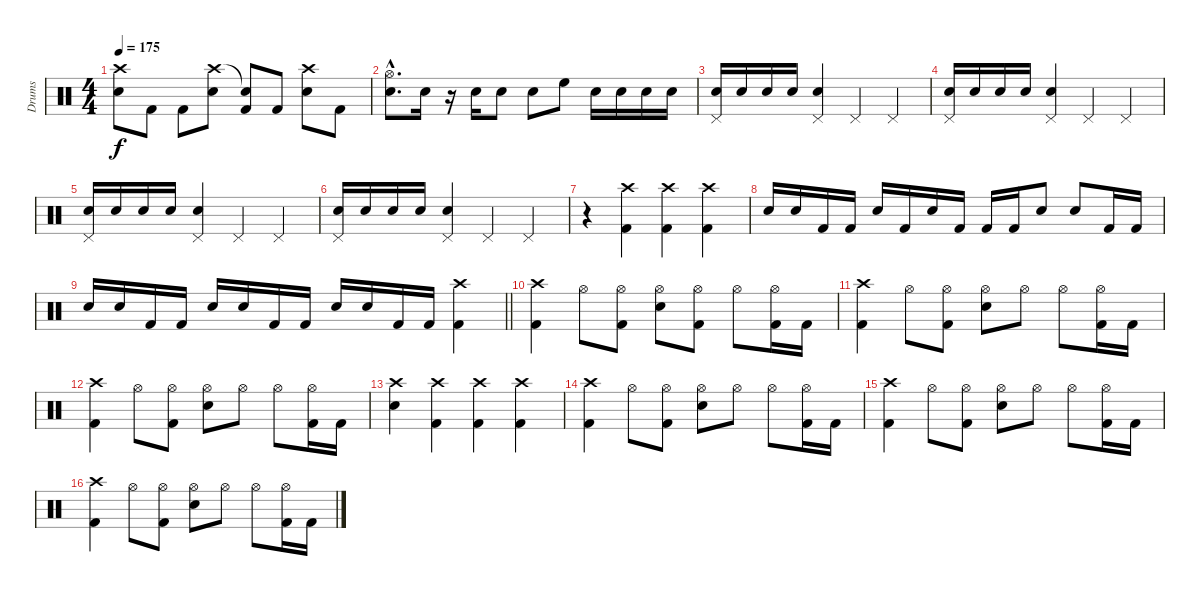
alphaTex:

\track ("Drums" "Drums") {instrument percussion}
\staff {score}
\articulation defaults
\ts (4 4)
\tempo 175
\clef neutral
\ks c
("Crash high (hit)" "Snare (hit) 2").8{dy f} "Kick (hit) 2".8 "Kick (hit) 2".8 ("Crash high (hit)" "Snare (hit) 2").8 ("Snare (hit)"{t} "Kick (hit) 2").8 "Kick (hit) 2".8 ("Crash high (hit)" "Snare (hit) 2").8 "Kick (hit) 2".8 |
("Hi-Hat (open)"{hac} "Snare (hit) 2"{hac}).8{d} "Snare (hit) 2".16 r.16 "Snare (hit) 2".16 "Snare (hit) 2".8 "Snare (hit) 2".8 "High Floor Tom (hit)".8 "Snare (hit) 2".16 "Snare (hit) 2".16 "Snare (hit) 2".16 "Snare (hit) 2".16 |
("Pedal Hi-Hat (hit)" "Snare (hit) 2").16 "Snare (hit) 2".16 "Snare (hit) 2".16 "Snare (hit) 2".16 ("Pedal Hi-Hat (hit)" "Snare (hit) 2").4 "Pedal Hi-Hat (hit)".4 "Pedal Hi-Hat (hit)".4 |
("Pedal Hi-Hat (hit)" "Snare (hit) 2").16 "Snare (hit) 2".16 "Snare (hit) 2".16 "Snare (hit) 2".16 ("Pedal Hi-Hat (hit)" "Snare (hit) 2").4 "Pedal Hi-Hat (hit)".4 "Pedal Hi-Hat (hit)".4 |
("Pedal Hi-Hat (hit)" "Snare (hit) 2").16 "Snare (hit) 2".16 "Snare (hit) 2".16 "Snare (hit) 2".16 ("Pedal Hi-Hat (hit)" "Snare (hit) 2").4 "Pedal Hi-Hat (hit)".4 "Pedal Hi-Hat (hit)".4 |
("Pedal Hi-Hat (hit)" "Snare (hit) 2").16 "Snare (hit) 2".16 "Snare (hit) 2".16 "Snare (hit) 2".16 ("Pedal Hi-Hat (hit)" "Snare (hit) 2").4 "Pedal Hi-Hat (hit)".4 "Pedal Hi-Hat (hit)".4 |
r.4 ("Crash high (hit)" "Kick (hit) 2").4 ("Crash high (hit)" "Kick (hit) 2").4 ("Crash high (hit)" "Kick (hit) 2").4 |
"Snare (hit) 2".16 "Snare (hit) 2".16 "Kick (hit) 2".16 "Kick (hit) 2".16 "Snare (hit) 2".16 "Kick (hit) 2".16 "Snare (hit) 2".16 "Kick (hit) 2".16 "Kick (hit) 2".16 "Kick (hit) 2".16 "Snare (hit) 2".8 "Snare (hit) 2".8 "Kick (hit) 2".16 "Kick (hit) 2".16 |
\barLineRight lightlight "Snare (hit) 2".16 "Snare (hit) 2".16 "Kick (hit) 2".16 "Kick (hit) 2".16 "Snare (hit) 2".16 "Snare (hit) 2".16 "Kick (hit) 2".16 "Kick (hit) 2".16 "Snare (hit) 2".16 "Snare (hit) 2".16 "Kick (hit) 2".16 "Kick (hit) 2".16
("Crash high (hit)" "Kick (hit) 2").4 |
("Crash high (hit)" "Kick (hit) 2").4 "Hi-Hat (open)".8 ("Hi-Hat (open)" "Kick (hit) 2").8 ("Hi-Hat (open)" "Snare (hit) 2").8 ("Hi-Hat (open)" "Kick (hit) 2").8 "Hi-Hat (open)".8 ("Hi-Hat (open)" "Kick (hit) 2").16 "Kick (hit) 2".16 |
("Crash high (hit)" "Kick (hit) 2").4 "Hi-Hat (open)".8 ("Hi-Hat (open)" "Kick (hit) 2").8 ("Hi-Hat (open)" "Snare (hit) 2").8 "Hi-Hat (open)".8 "Hi-Hat (open)".8 ("Hi-Hat (open)" "Kick (hit) 2").16 "Kick (hit) 2".16 |
("Crash high (hit)" "Kick (hit) 2").4 "Hi-Hat (open)".8 ("Hi-Hat (open)" "Kick (hit) 2").8 ("Hi-Hat (open)" "Snare (hit) 2").8 "Hi-Hat (open)".8 "Hi-Hat (open)".8 ("Hi-Hat (open)" "Kick (hit) 2").16 "Kick (hit) 2".16 |
("Crash high (hit)" "Snare (hit) 2").4 ("Crash high (hit)" "Kick (hit) 2").4 ("Crash high (hit)" "Kick (hit) 2").4 ("Crash high (hit)" "Kick (hit) 2").4 |
("Crash high (hit)" "Kick (hit) 2").4 "Hi-Hat (open)".8 ("Hi-Hat (open)" "Kick (hit) 2").8 ("Hi-Hat (open)" "Snare (hit) 2").8 "Hi-Hat (open)".8 "Hi-Hat (open)".8 ("Hi-Hat (open)" "Kick (hit) 2").16 "Kick (hit) 2".16 |
("Crash high (hit)" "Kick (hit) 2").4 "Hi-Hat (open)".8 ("Hi-Hat (open)" "Kick (hit) 2").8 ("Hi-Hat (open)" "Snare (hit) 2").8 "Hi-Hat (open)".8 "Hi-Hat (open)".8 ("Hi-Hat (open)" "Kick (hit) 2").16 "Kick (hit) 2".16 |
("Crash high (hit)" "Kick (hit) 2").4 "Hi-Hat (open)".8 ("Hi-Hat (open)" "Kick (hit) 2").8 ("Hi-Hat (open)" "Snare (hit) 2").8 "Hi-Hat (open)".8 "Hi-Hat (open)".8 ("Hi-Hat (open)" "Kick (hit) 2").16 "Kick (hit) 2".16
